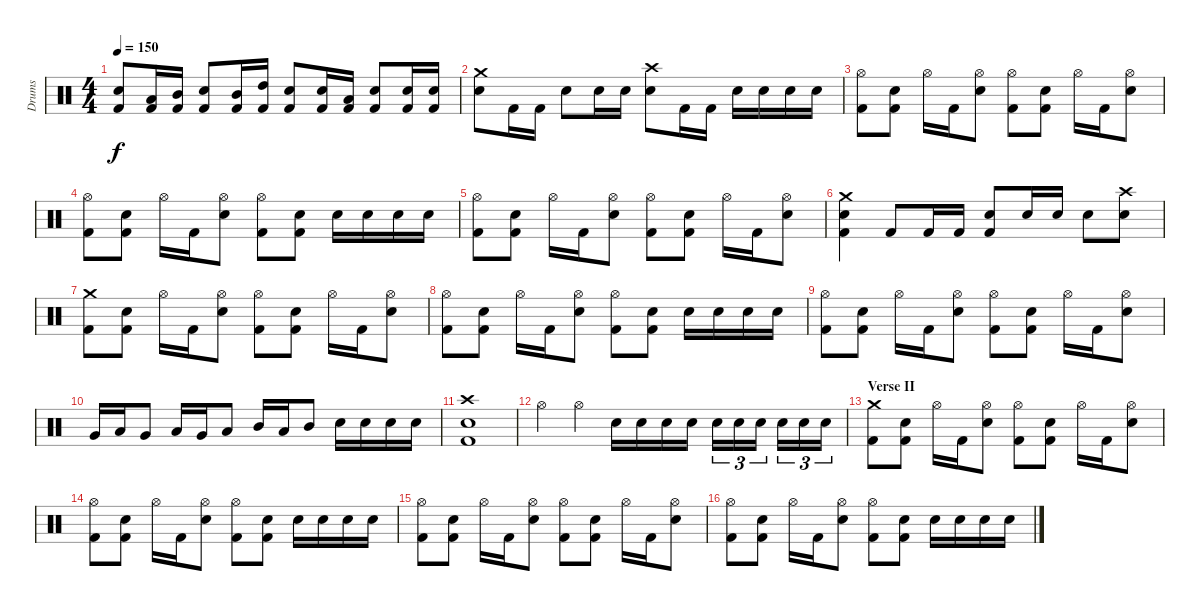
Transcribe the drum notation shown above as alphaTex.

\track ("Drums" "Drums") {instrument percussion}
\staff {score}
\articulation defaults
\ts (4 4)
\tempo 150
\clef neutral
\ks c
("Kick (hit) 2" "Snare (hit) 2").8{dy f} ("Kick (hit) 2" "Low Tom (hit)").16 ("Kick (hit) 2" "Mid Tom (hit)").16 ("Kick (hit) 2" "Snare (hit) 2").8 ("Kick (hit) 2" "Mid Tom (hit)").16 ("Kick (hit) 2" "High Tom (hit)").16 ("Kick (hit) 2" "Snare (hit) 2").8 ("Kick (hit) 2" "Snare (hit) 2").16 ("Kick (hit) 2" "Low Tom (hit)").16 ("Kick (hit) 2" "Snare (hit) 2").8 ("Kick (hit) 2" "Snare (hit) 2").16 ("Kick (hit) 2" "Snare (hit) 2").16 |
("Snare (hit) 2" "Crash medium (hit)").8 "Kick (hit) 2".16 "Kick (hit) 2".16 "Snare (hit) 2".8 "Snare (hit) 2".16 "Snare (hit) 2".16 ("Snare (hit) 2" "Crash high (hit)").8 "Kick (hit) 2".16 "Kick (hit) 2".16 "Snare (hit) 2".16 "Snare (hit) 2".16 "Snare (hit) 2".16 "Snare (hit) 2".16 |
("Kick (hit) 2" "Hi-Hat (open)").8 ("Kick (hit) 2" "Snare (hit) 2").8 "Hi-Hat (open)".16 "Kick (hit) 2".16 ("Snare (hit) 2" "Hi-Hat (open)").8 ("Kick (hit) 2" "Hi-Hat (open)").8 ("Kick (hit) 2" "Snare (hit) 2").8 "Hi-Hat (open)".16 "Kick (hit) 2".16 ("Snare (hit) 2" "Hi-Hat (open)").8 |
("Kick (hit) 2" "Hi-Hat (open)").8 ("Kick (hit) 2" "Snare (hit) 2").8 "Hi-Hat (open)".16 "Kick (hit) 2".16 ("Snare (hit) 2" "Hi-Hat (open)").8 ("Kick (hit) 2" "Hi-Hat (open)").8 ("Kick (hit) 2" "Snare (hit) 2").8 "Snare (hit) 2".16 "Snare (hit) 2".16 "Snare (hit) 2".16 "Snare (hit) 2".16 |
("Kick (hit) 2" "Hi-Hat (open)").8 ("Kick (hit) 2" "Snare (hit) 2").8 "Hi-Hat (open)".16 "Kick (hit) 2".16 ("Snare (hit) 2" "Hi-Hat (open)").8 ("Kick (hit) 2" "Hi-Hat (open)").8 ("Kick (hit) 2" "Snare (hit) 2").8 "Hi-Hat (open)".16 "Kick (hit) 2".16 ("Snare (hit) 2" "Hi-Hat (open)").8 |
("Kick (hit) 2" "Snare (hit) 2" "Crash medium (hit)").4 "Kick (hit) 2".8 "Kick (hit) 2".16 "Kick (hit) 2".16 ("Kick (hit) 2" "Snare (hit) 2").8 "Snare (hit) 2".16 "Snare (hit) 2".16 "Snare (hit) 2".8 ("Snare (hit) 2" "Crash high (hit)").8 |
("Kick (hit) 2" "Crash medium (hit)").8 ("Kick (hit) 2" "Snare (hit) 2").8 "Hi-Hat (open)".16 "Kick (hit) 2".16 ("Snare (hit) 2" "Hi-Hat (open)").8 ("Kick (hit) 2" "Hi-Hat (open)").8 ("Kick (hit) 2" "Snare (hit) 2").8 "Hi-Hat (open)".16 "Kick (hit) 2".16 ("Snare (hit) 2" "Hi-Hat (open)").8 |
("Kick (hit) 2" "Hi-Hat (open)").8 ("Kick (hit) 2" "Snare (hit) 2").8 "Hi-Hat (open)".16 "Kick (hit) 2".16 ("Snare (hit) 2" "Hi-Hat (open)").8 ("Kick (hit) 2" "Hi-Hat (open)").8 ("Kick (hit) 2" "Snare (hit) 2").8 "Snare (hit) 2".16 "Snare (hit) 2".16 "Snare (hit) 2".16 "Snare (hit) 2".16 |
("Kick (hit) 2" "Hi-Hat (open)").8 ("Kick (hit) 2" "Snare (hit) 2").8 "Hi-Hat (open)".16 "Kick (hit) 2".16 ("Snare (hit) 2" "Hi-Hat (open)").8 ("Kick (hit) 2" "Hi-Hat (open)").8 ("Kick (hit) 2" "Snare (hit) 2").8 "Hi-Hat (open)".16 "Kick (hit) 2".16 ("Snare (hit) 2" "Hi-Hat (open)").8 |
"Very Low Tom (hit)".16 "Low Floor Tom (hit)".16 "Very Low Tom (hit)".8 "Low Tom (hit)".16 "Very Low Tom (hit)".16 "Low Tom (hit)".8 "Mid Tom (hit)".16 "Low Tom (hit)".16 "Mid Tom (hit)".8 "Snare (hit) 2".16 "Snare (hit) 2".16 "Snare (hit) 2".16 "Snare (hit) 2".16 |
("Kick (hit) 2" "Snare (hit) 2" "Crash high (hit)").1 |
"Hi-Hat (open)".4 "Hi-Hat (open)".4 "Snare (hit) 2".16 "Snare (hit) 2".16 "Snare (hit) 2".16 "Snare (hit) 2".16 "Snare (hit) 2".16{tu (3 2)} "Snare (hit) 2".16{tu (3 2)} "Snare (hit) 2".16{tu (3 2)} "Snare (hit) 2".16{tu (3 2)} "Snare (hit) 2".16{tu (3 2)} "Snare (hit) 2".16{tu (3 2)} |
\section ("" "Verse II")
("Kick (hit) 2" "Crash medium (hit)").8 ("Kick (hit) 2" "Snare (hit) 2").8 "Hi-Hat (open)".16 "Kick (hit) 2".16 ("Snare (hit) 2" "Hi-Hat (open)").8 ("Kick (hit) 2" "Hi-Hat (open)").8 ("Kick (hit) 2" "Snare (hit) 2").8 "Hi-Hat (open)".16 "Kick (hit) 2".16 ("Snare (hit) 2" "Hi-Hat (open)").8 |
("Kick (hit) 2" "Hi-Hat (open)").8 ("Kick (hit) 2" "Snare (hit) 2").8 "Hi-Hat (open)".16 "Kick (hit) 2".16 ("Snare (hit) 2" "Hi-Hat (open)").8 ("Kick (hit) 2" "Hi-Hat (open)").8 ("Kick (hit) 2" "Snare (hit) 2").8 "Snare (hit) 2".16 "Snare (hit) 2".16 "Snare (hit) 2".16 "Snare (hit) 2".16 |
("Kick (hit) 2" "Hi-Hat (open)").8 ("Kick (hit) 2" "Snare (hit) 2").8 "Hi-Hat (open)".16 "Kick (hit) 2".16 ("Snare (hit) 2" "Hi-Hat (open)").8 ("Kick (hit) 2" "Hi-Hat (open)").8 ("Kick (hit) 2" "Snare (hit) 2").8 "Hi-Hat (open)".16 "Kick (hit) 2".16 ("Snare (hit) 2" "Hi-Hat (open)").8 |
("Kick (hit) 2" "Hi-Hat (open)").8 ("Kick (hit) 2" "Snare (hit) 2").8 "Hi-Hat (open)".16 "Kick (hit) 2".16 ("Snare (hit) 2" "Hi-Hat (open)").8 ("Kick (hit) 2" "Hi-Hat (open)").8 ("Kick (hit) 2" "Snare (hit) 2").8 "Snare (hit) 2".16 "Snare (hit) 2".16 "Snare (hit) 2".16 "Snare (hit) 2".16
